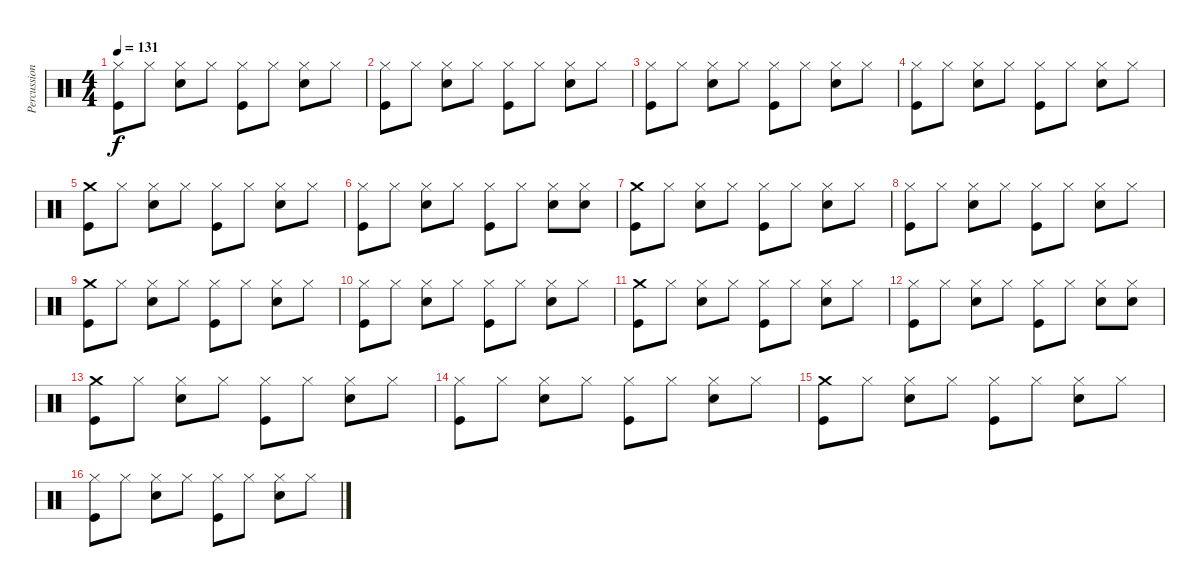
\track ("Percussions" "Percussion") {instrument percussion}
\staff {score}
\articulation defaults
\ts (4 4)
\tempo 131
\clef neutral
\ks c
("Hi-Hat (closed)" "Kick (hit)").8{dy f} "Hi-Hat (closed)".8 ("Hi-Hat (closed)" "Snare (hit) 2").8 "Hi-Hat (closed)".8 ("Hi-Hat (closed)" "Kick (hit)").8 "Hi-Hat (closed)".8 ("Hi-Hat (closed)" "Snare (hit) 2").8 "Hi-Hat (closed)".8 |
("Hi-Hat (closed)" "Kick (hit)").8 "Hi-Hat (closed)".8 ("Hi-Hat (closed)" "Snare (hit) 2").8 "Hi-Hat (closed)".8 ("Hi-Hat (closed)" "Kick (hit)").8 "Hi-Hat (closed)".8 ("Hi-Hat (closed)" "Snare (hit) 2").8 "Hi-Hat (closed)".8 |
("Hi-Hat (closed)" "Kick (hit)").8 "Hi-Hat (closed)".8 ("Hi-Hat (closed)" "Snare (hit) 2").8 "Hi-Hat (closed)".8 ("Hi-Hat (closed)" "Kick (hit)").8 "Hi-Hat (closed)".8 ("Hi-Hat (closed)" "Snare (hit) 2").8 "Hi-Hat (closed)".8 |
("Hi-Hat (closed)" "Kick (hit)").8 "Hi-Hat (closed)".8 ("Hi-Hat (closed)" "Snare (hit) 2").8 "Hi-Hat (closed)".8 ("Hi-Hat (closed)" "Kick (hit)").8 "Hi-Hat (closed)".8 ("Hi-Hat (closed)" "Snare (hit) 2").8 "Hi-Hat (closed)".8 |
("Crash medium (hit)" "Kick (hit)").8 "Hi-Hat (closed)".8 ("Hi-Hat (closed)" "Snare (hit) 2").8 "Hi-Hat (closed)".8 ("Hi-Hat (closed)" "Kick (hit)").8 "Hi-Hat (closed)".8 ("Hi-Hat (closed)" "Snare (hit) 2").8 "Hi-Hat (closed)".8 |
("Hi-Hat (closed)" "Kick (hit)").8 "Hi-Hat (closed)".8 ("Hi-Hat (closed)" "Snare (hit) 2").8 "Hi-Hat (closed)".8 ("Hi-Hat (closed)" "Kick (hit)").8 "Hi-Hat (closed)".8 ("Hi-Hat (closed)" "Snare (hit) 2").8 ("Hi-Hat (closed)" "Snare (hit) 2").8 |
("Crash medium (hit)" "Kick (hit)").8 "Hi-Hat (closed)".8 ("Hi-Hat (closed)" "Snare (hit) 2").8 "Hi-Hat (closed)".8 ("Hi-Hat (closed)" "Kick (hit)").8 "Hi-Hat (closed)".8 ("Hi-Hat (closed)" "Snare (hit) 2").8 "Hi-Hat (closed)".8 |
("Hi-Hat (closed)" "Kick (hit)").8 "Hi-Hat (closed)".8 ("Hi-Hat (closed)" "Snare (hit) 2").8 "Hi-Hat (closed)".8 ("Hi-Hat (closed)" "Kick (hit)").8 "Hi-Hat (closed)".8 ("Hi-Hat (closed)" "Snare (hit) 2").8 "Hi-Hat (closed)".8 |
("Crash medium (hit)" "Kick (hit)").8 "Hi-Hat (closed)".8 ("Hi-Hat (closed)" "Snare (hit) 2").8 "Hi-Hat (closed)".8 ("Hi-Hat (closed)" "Kick (hit)").8 "Hi-Hat (closed)".8 ("Hi-Hat (closed)" "Snare (hit) 2").8 "Hi-Hat (closed)".8 |
("Hi-Hat (closed)" "Kick (hit)").8 "Hi-Hat (closed)".8 ("Hi-Hat (closed)" "Snare (hit) 2").8 "Hi-Hat (closed)".8 ("Hi-Hat (closed)" "Kick (hit)").8 "Hi-Hat (closed)".8 ("Hi-Hat (closed)" "Snare (hit) 2").8 "Hi-Hat (closed)".8 |
("Crash medium (hit)" "Kick (hit)").8 "Hi-Hat (closed)".8 ("Hi-Hat (closed)" "Snare (hit) 2").8 "Hi-Hat (closed)".8 ("Hi-Hat (closed)" "Kick (hit)").8 "Hi-Hat (closed)".8 ("Hi-Hat (closed)" "Snare (hit) 2").8 "Hi-Hat (closed)".8 |
("Hi-Hat (closed)" "Kick (hit)").8 "Hi-Hat (closed)".8 ("Hi-Hat (closed)" "Snare (hit) 2").8 "Hi-Hat (closed)".8 ("Hi-Hat (closed)" "Kick (hit)").8 "Hi-Hat (closed)".8 ("Hi-Hat (closed)" "Snare (hit) 2").8 ("Hi-Hat (closed)" "Snare (hit) 2").8 |
("Crash medium (hit)" "Kick (hit)").8 "Hi-Hat (closed)".8 ("Hi-Hat (closed)" "Snare (hit) 2").8 "Hi-Hat (closed)".8 ("Hi-Hat (closed)" "Kick (hit)").8 "Hi-Hat (closed)".8 ("Hi-Hat (closed)" "Snare (hit) 2").8 "Hi-Hat (closed)".8 |
("Hi-Hat (closed)" "Kick (hit)").8 "Hi-Hat (closed)".8 ("Hi-Hat (closed)" "Snare (hit) 2").8 "Hi-Hat (closed)".8 ("Hi-Hat (closed)" "Kick (hit)").8 "Hi-Hat (closed)".8 ("Hi-Hat (closed)" "Snare (hit) 2").8 "Hi-Hat (closed)".8 |
("Crash medium (hit)" "Kick (hit)").8 "Hi-Hat (closed)".8 ("Hi-Hat (closed)" "Snare (hit) 2").8 "Hi-Hat (closed)".8 ("Hi-Hat (closed)" "Kick (hit)").8 "Hi-Hat (closed)".8 ("Hi-Hat (closed)" "Snare (hit) 2").8 "Hi-Hat (closed)".8 |
("Hi-Hat (closed)" "Kick (hit)").8 "Hi-Hat (closed)".8 ("Hi-Hat (closed)" "Snare (hit) 2").8 "Hi-Hat (closed)".8 ("Hi-Hat (closed)" "Kick (hit)").8 "Hi-Hat (closed)".8 ("Hi-Hat (closed)" "Snare (hit) 2").8 "Hi-Hat (closed)".8
